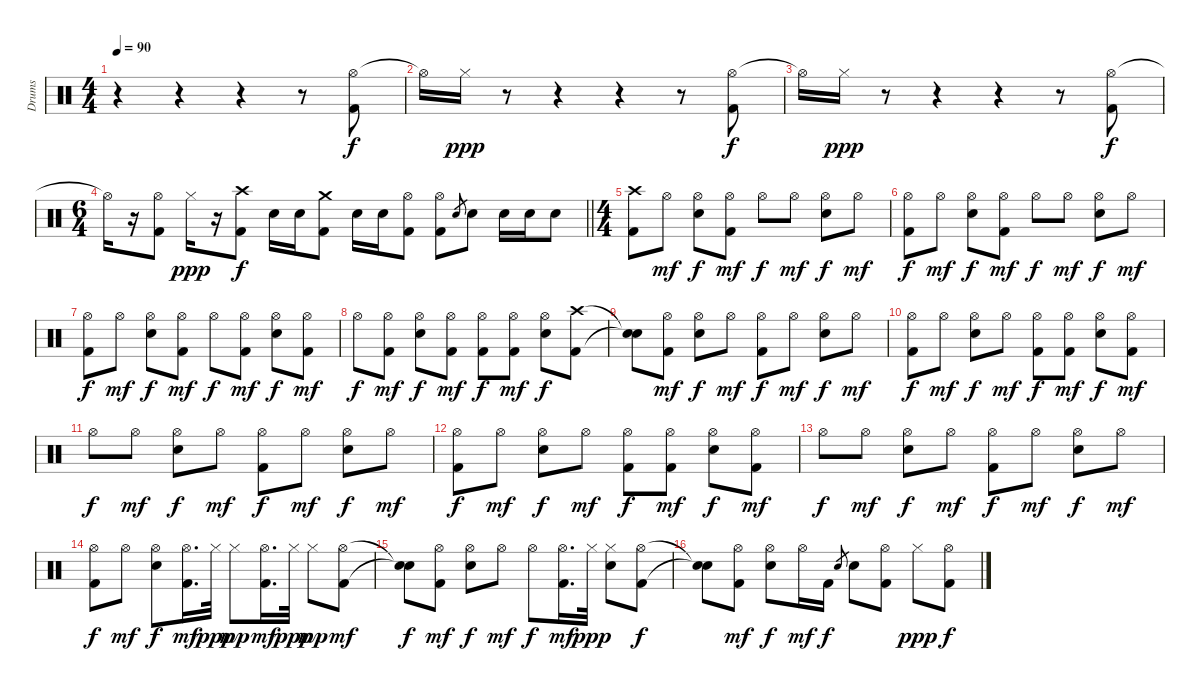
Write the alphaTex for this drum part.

\track ("Drums" "Drums") {instrument percussion}
\staff {score}
\articulation defaults
\ts (4 4)
\tempo 90
\clef neutral
\ks c
r.4{dy f} r.4 r.4 r.8 ("Hi-Hat (open)" "Kick (hit) 2").8 |
"Hi-Hat (open)"{t}.16 "Hi-Hat (closed)".16{dy ppp} r.8 r.4 r.4 r.8 ("Hi-Hat (open)" "Kick (hit) 2").8{dy f} |
"Hi-Hat (open)"{t}.16 "Hi-Hat (closed)".16{dy ppp} r.8 r.4 r.4 r.8 ("Hi-Hat (open)" "Kick (hit) 2").8{dy f} |
\ts (6 4)
\barLineRight lightlight "Hi-Hat (open)"{t}.16
r.16 ("Hi-Hat (open)" "Kick (hit) 2").8 "Hi-Hat (closed)".16{dy ppp} r.16 ("Crash high (hit)" "Kick (hit) 2").8{dy f} "Electric Snare (hit)".16 "Electric Snare (hit)".16 ("Crash medium (hit)" "Kick (hit) 2").8 "Electric Snare (hit)".16 "Electric Snare (hit)".16 ("Hi-Hat (open)" "Kick (hit) 2").8 ("Hi-Hat (open)" "Kick (hit) 2").8 "Electric Snare (hit)".8{gr} "Electric Snare (hit)".8 "Electric Snare (hit)".16 "Electric Snare (hit)".16 "Electric Snare (hit)".8 |
\ts (4 4)
("Crash high (hit)" "Kick (hit) 2").8 "Hi-Hat (open)".8{dy mf} ("Hi-Hat (open)" "Electric Snare (hit)").8{dy f} ("Hi-Hat (open)" "Kick (hit) 2").8{dy mf} "Hi-Hat (open)".8{dy f} "Hi-Hat (open)".8{dy mf} ("Hi-Hat (open)" "Electric Snare (hit)").8{dy f} "Hi-Hat (open)".8{dy mf} |
("Hi-Hat (open)" "Kick (hit) 2").8{dy f} "Hi-Hat (open)".8{dy mf} ("Hi-Hat (open)" "Electric Snare (hit)").8{dy f} ("Hi-Hat (open)" "Kick (hit) 2").8{dy mf} "Hi-Hat (open)".8{dy f} "Hi-Hat (open)".8{dy mf} ("Hi-Hat (open)" "Electric Snare (hit)").8{dy f} "Hi-Hat (open)".8{dy mf} |
("Hi-Hat (open)" "Kick (hit) 2").8{dy f} "Hi-Hat (open)".8{dy mf} ("Hi-Hat (open)" "Electric Snare (hit)").8{dy f} ("Hi-Hat (open)" "Kick (hit) 2").8{dy mf} "Hi-Hat (open)".8{dy f} ("Hi-Hat (open)" "Kick (hit) 2").8{dy mf} ("Hi-Hat (open)" "Electric Snare (hit)").8{dy f} ("Hi-Hat (open)" "Kick (hit) 2").8{dy mf} |
"Hi-Hat (open)".8{dy f} ("Hi-Hat (open)" "Kick (hit) 2").8{dy mf} ("Hi-Hat (open)" "Electric Snare (hit)").8{dy f} ("Hi-Hat (open)" "Kick (hit) 2").8{dy mf} ("Hi-Hat (open)" "Kick (hit) 2").8{dy f} ("Hi-Hat (open)" "Kick (hit) 2").8{dy mf} ("Hi-Hat (open)" "Electric Snare (hit)").8{dy f} ("Crash high (hit)" "Kick (hit) 2").8 |
("Snare (hit)"{t} "Snare (hit)"{t}).8 ("Hi-Hat (open)" "Kick (hit) 2").8{dy mf} ("Hi-Hat (open)" "Electric Snare (hit)").8{dy f} "Hi-Hat (open)".8{dy mf} ("Hi-Hat (open)" "Kick (hit) 2").8{dy f} "Hi-Hat (open)".8{dy mf} ("Hi-Hat (open)" "Electric Snare (hit)").8{dy f} "Hi-Hat (open)".8{dy mf} |
("Hi-Hat (open)" "Kick (hit) 2").8{dy f} "Hi-Hat (open)".8{dy mf} ("Hi-Hat (open)" "Electric Snare (hit)").8{dy f} "Hi-Hat (open)".8{dy mf} ("Hi-Hat (open)" "Kick (hit) 2").8{dy f} ("Hi-Hat (open)" "Kick (hit) 2").8{dy mf} ("Hi-Hat (open)" "Electric Snare (hit)").8{dy f} ("Hi-Hat (open)" "Kick (hit) 2").8{dy mf} |
"Hi-Hat (open)".8{dy f} "Hi-Hat (open)".8{dy mf} ("Hi-Hat (open)" "Electric Snare (hit)").8{dy f} "Hi-Hat (open)".8{dy mf} ("Hi-Hat (open)" "Kick (hit) 2").8{dy f} "Hi-Hat (open)".8{dy mf} ("Hi-Hat (open)" "Electric Snare (hit)").8{dy f} "Hi-Hat (open)".8{dy mf} |
("Hi-Hat (open)" "Kick (hit) 2").8{dy f} "Hi-Hat (open)".8{dy mf} ("Hi-Hat (open)" "Electric Snare (hit)").8{dy f} "Hi-Hat (open)".8{dy mf} ("Hi-Hat (open)" "Kick (hit) 2").8{dy f} ("Hi-Hat (open)" "Kick (hit) 2").8{dy mf} ("Hi-Hat (open)" "Electric Snare (hit)").8{dy f} ("Hi-Hat (open)" "Kick (hit) 2").8{dy mf} |
"Hi-Hat (open)".8{dy f} "Hi-Hat (open)".8{dy mf} ("Hi-Hat (open)" "Electric Snare (hit)").8{dy f} "Hi-Hat (open)".8{dy mf} ("Hi-Hat (open)" "Kick (hit) 2").8{dy f} "Hi-Hat (open)".8{dy mf} ("Hi-Hat (open)" "Electric Snare (hit)").8{dy f} "Hi-Hat (open)".8{dy mf} |
("Hi-Hat (open)" "Kick (hit) 2").8{dy f} "Hi-Hat (open)".8{dy mf} ("Hi-Hat (open)" "Electric Snare (hit)").8{dy f} ("Hi-Hat (open)" "Kick (hit) 2").16{d dy mf} "Hi-Hat (closed)".32{dy ppp} "Hi-Hat (closed)".8{dy mp} ("Hi-Hat (open)" "Kick (hit) 2").16{d dy mf} "Hi-Hat (closed)".32{dy ppp} "Hi-Hat (closed)".8{dy mp} ("Hi-Hat (open)" "Kick (hit) 2").8{dy mf} |
("Snare (hit)"{t} "Snare (hit)"{t}).8{dy f} ("Hi-Hat (open)" "Kick (hit) 2").8{dy mf} ("Hi-Hat (open)" "Electric Snare (hit)").8{dy f} "Hi-Hat (open)".8{dy mf} "Hi-Hat (open)".8{dy f} ("Hi-Hat (open)" "Kick (hit) 2").16{d dy mf} "Hi-Hat (closed)".32{dy ppp} ("Hi-Hat (closed)" "Electric Snare (hit)").8 ("Hi-Hat (open)" "Kick (hit) 2").8{dy f} |
("Snare (hit)"{t} "Snare (hit)"{t}).8 ("Hi-Hat (open)" "Kick (hit) 2").8{dy mf} ("Hi-Hat (open)" "Electric Snare (hit)").8{dy f} "Hi-Hat (open)".16{dy mf} "Kick (hit) 2".16{dy f} "Electric Snare (hit)".8{gr} "Electric Snare (hit)".8 ("Hi-Hat (open)" "Kick (hit) 2").8 "Hi-Hat (closed)".8{dy ppp} ("Hi-Hat (open)" "Kick (hit) 2").8{dy f}
